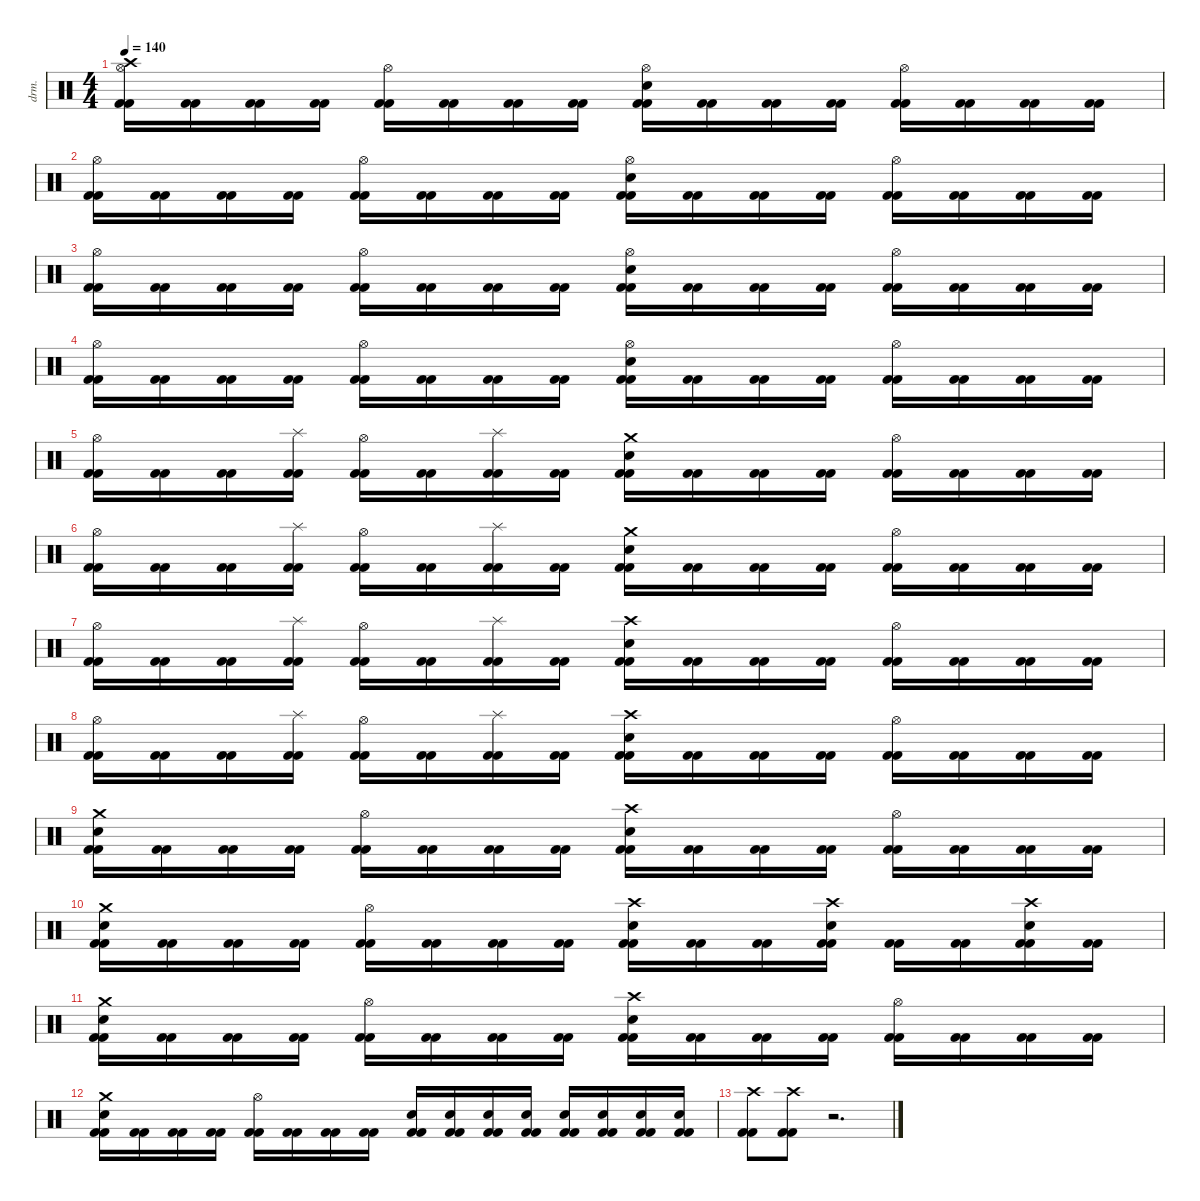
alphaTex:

\defaultSystemsLayout 4
\hideDynamics
\bracketExtendMode nobrackets
\otherSystemsTrackNameOrientation horizontal
\track ("Chris Adler" "drm.") {instrument percussion}
\staff {score}
\articulation defaults
\ts (4 4)
\tempo 140
\clef neutral
\ks c
("Crash high (hit)" "Hi-Hat (open)" "Kick (hit) 2" "Kick (hit) 2").16{dy f} ("Kick (hit) 2" "Kick (hit) 2").16 ("Kick (hit) 2" "Kick (hit) 2").16 ("Kick (hit) 2" "Kick (hit) 2").16 ("Hi-Hat (open)" "Kick (hit) 2" "Kick (hit) 2").16 ("Kick (hit) 2" "Kick (hit) 2").16 ("Kick (hit) 2" "Kick (hit) 2").16 ("Kick (hit) 2" "Kick (hit) 2").16 ("Hi-Hat (open)" "Snare (hit) 2" "Kick (hit) 2" "Kick (hit) 2").16 ("Kick (hit) 2" "Kick (hit) 2").16 ("Kick (hit) 2" "Kick (hit) 2").16 ("Kick (hit) 2" "Kick (hit) 2").16 ("Hi-Hat (open)" "Kick (hit) 2" "Kick (hit) 2").16 ("Kick (hit) 2" "Kick (hit) 2").16 ("Kick (hit) 2" "Kick (hit) 2").16 ("Kick (hit) 2" "Kick (hit) 2").16 |
("Hi-Hat (open)" "Kick (hit) 2" "Kick (hit) 2").16 ("Kick (hit) 2" "Kick (hit) 2").16 ("Kick (hit) 2" "Kick (hit) 2").16 ("Kick (hit) 2" "Kick (hit) 2").16 ("Hi-Hat (open)" "Kick (hit) 2" "Kick (hit) 2").16 ("Kick (hit) 2" "Kick (hit) 2").16 ("Kick (hit) 2" "Kick (hit) 2").16 ("Kick (hit) 2" "Kick (hit) 2").16 ("Hi-Hat (open)" "Snare (hit) 2" "Kick (hit) 2" "Kick (hit) 2").16 ("Kick (hit) 2" "Kick (hit) 2").16 ("Kick (hit) 2" "Kick (hit) 2").16 ("Kick (hit) 2" "Kick (hit) 2").16 ("Hi-Hat (open)" "Kick (hit) 2" "Kick (hit) 2").16 ("Kick (hit) 2" "Kick (hit) 2").16 ("Kick (hit) 2" "Kick (hit) 2").16 ("Kick (hit) 2" "Kick (hit) 2").16 |
("Hi-Hat (open)" "Kick (hit) 2" "Kick (hit) 2").16 ("Kick (hit) 2" "Kick (hit) 2").16 ("Kick (hit) 2" "Kick (hit) 2").16 ("Kick (hit) 2" "Kick (hit) 2").16 ("Hi-Hat (open)" "Kick (hit) 2" "Kick (hit) 2").16 ("Kick (hit) 2" "Kick (hit) 2").16 ("Kick (hit) 2" "Kick (hit) 2").16 ("Kick (hit) 2" "Kick (hit) 2").16 ("Hi-Hat (open)" "Snare (hit) 2" "Kick (hit) 2" "Kick (hit) 2").16 ("Kick (hit) 2" "Kick (hit) 2").16 ("Kick (hit) 2" "Kick (hit) 2").16 ("Kick (hit) 2" "Kick (hit) 2").16 ("Hi-Hat (open)" "Kick (hit) 2" "Kick (hit) 2").16 ("Kick (hit) 2" "Kick (hit) 2").16 ("Kick (hit) 2" "Kick (hit) 2").16 ("Kick (hit) 2" "Kick (hit) 2").16 |
("Hi-Hat (open)" "Kick (hit) 2" "Kick (hit) 2").16 ("Kick (hit) 2" "Kick (hit) 2").16 ("Kick (hit) 2" "Kick (hit) 2").16 ("Kick (hit) 2" "Kick (hit) 2").16 ("Hi-Hat (open)" "Kick (hit) 2" "Kick (hit) 2").16 ("Kick (hit) 2" "Kick (hit) 2").16 ("Kick (hit) 2" "Kick (hit) 2").16 ("Kick (hit) 2" "Kick (hit) 2").16 ("Hi-Hat (open)" "Snare (hit) 2" "Kick (hit) 2" "Kick (hit) 2").16 ("Kick (hit) 2" "Kick (hit) 2").16 ("Kick (hit) 2" "Kick (hit) 2").16 ("Kick (hit) 2" "Kick (hit) 2").16 ("Hi-Hat (open)" "Kick (hit) 2" "Kick (hit) 2").16 ("Kick (hit) 2" "Kick (hit) 2").16 ("Kick (hit) 2" "Kick (hit) 2").16 ("Kick (hit) 2" "Kick (hit) 2").16 |
("Hi-Hat (open)" "Kick (hit) 2" "Kick (hit) 2").16 ("Kick (hit) 2" "Kick (hit) 2").16 ("Kick (hit) 2" "Kick (hit) 2").16 ("Splash (hit)" "Kick (hit) 2" "Kick (hit) 2").16 ("Hi-Hat (open)" "Kick (hit) 2" "Kick (hit) 2").16 ("Kick (hit) 2" "Kick (hit) 2").16 ("Splash (hit)" "Kick (hit) 2" "Kick (hit) 2").16 ("Kick (hit) 2" "Kick (hit) 2").16 ("Crash medium (hit)" "Snare (hit) 2" "Kick (hit) 2" "Kick (hit) 2").16 ("Kick (hit) 2" "Kick (hit) 2").16 ("Kick (hit) 2" "Kick (hit) 2").16 ("Kick (hit) 2" "Kick (hit) 2").16 ("Hi-Hat (open)" "Kick (hit) 2" "Kick (hit) 2").16 ("Kick (hit) 2" "Kick (hit) 2").16 ("Kick (hit) 2" "Kick (hit) 2").16 ("Kick (hit) 2" "Kick (hit) 2").16 |
("Hi-Hat (open)" "Kick (hit) 2" "Kick (hit) 2").16 ("Kick (hit) 2" "Kick (hit) 2").16 ("Kick (hit) 2" "Kick (hit) 2").16 ("Splash (hit)" "Kick (hit) 2" "Kick (hit) 2").16 ("Hi-Hat (open)" "Kick (hit) 2" "Kick (hit) 2").16 ("Kick (hit) 2" "Kick (hit) 2").16 ("Splash (hit)" "Kick (hit) 2" "Kick (hit) 2").16 ("Kick (hit) 2" "Kick (hit) 2").16 ("Crash medium (hit)" "Snare (hit) 2" "Kick (hit) 2" "Kick (hit) 2").16 ("Kick (hit) 2" "Kick (hit) 2").16 ("Kick (hit) 2" "Kick (hit) 2").16 ("Kick (hit) 2" "Kick (hit) 2").16 ("Hi-Hat (open)" "Kick (hit) 2" "Kick (hit) 2").16 ("Kick (hit) 2" "Kick (hit) 2").16 ("Kick (hit) 2" "Kick (hit) 2").16 ("Kick (hit) 2" "Kick (hit) 2").16 |
("Hi-Hat (open)" "Kick (hit) 2" "Kick (hit) 2").16 ("Kick (hit) 2" "Kick (hit) 2").16 ("Kick (hit) 2" "Kick (hit) 2").16 ("Splash (hit)" "Kick (hit) 2" "Kick (hit) 2").16 ("Hi-Hat (open)" "Kick (hit) 2" "Kick (hit) 2").16 ("Kick (hit) 2" "Kick (hit) 2").16 ("Splash (hit)" "Kick (hit) 2" "Kick (hit) 2").16 ("Kick (hit) 2" "Kick (hit) 2").16 ("Crash high (hit)" "Snare (hit) 2" "Kick (hit) 2" "Kick (hit) 2").16 ("Kick (hit) 2" "Kick (hit) 2").16 ("Kick (hit) 2" "Kick (hit) 2").16 ("Kick (hit) 2" "Kick (hit) 2").16 ("Hi-Hat (open)" "Kick (hit) 2" "Kick (hit) 2").16 ("Kick (hit) 2" "Kick (hit) 2").16 ("Kick (hit) 2" "Kick (hit) 2").16 ("Kick (hit) 2" "Kick (hit) 2").16 |
("Hi-Hat (open)" "Kick (hit) 2" "Kick (hit) 2").16 ("Kick (hit) 2" "Kick (hit) 2").16 ("Kick (hit) 2" "Kick (hit) 2").16 ("Splash (hit)" "Kick (hit) 2" "Kick (hit) 2").16 ("Hi-Hat (open)" "Kick (hit) 2" "Kick (hit) 2").16 ("Kick (hit) 2" "Kick (hit) 2").16 ("Splash (hit)" "Kick (hit) 2" "Kick (hit) 2").16 ("Kick (hit) 2" "Kick (hit) 2").16 ("Crash high (hit)" "Snare (hit) 2" "Kick (hit) 2" "Kick (hit) 2").16 ("Kick (hit) 2" "Kick (hit) 2").16 ("Kick (hit) 2" "Kick (hit) 2").16 ("Kick (hit) 2" "Kick (hit) 2").16 ("Hi-Hat (open)" "Kick (hit) 2" "Kick (hit) 2").16 ("Kick (hit) 2" "Kick (hit) 2").16 ("Kick (hit) 2" "Kick (hit) 2").16 ("Kick (hit) 2" "Kick (hit) 2").16 |
("Crash medium (hit)" "Snare (hit) 2" "Kick (hit) 2" "Kick (hit) 2").16 ("Kick (hit) 2" "Kick (hit) 2").16 ("Kick (hit) 2" "Kick (hit) 2").16 ("Kick (hit) 2" "Kick (hit) 2").16 ("Hi-Hat (open)" "Kick (hit) 2" "Kick (hit) 2").16 ("Kick (hit) 2" "Kick (hit) 2").16 ("Kick (hit) 2" "Kick (hit) 2").16 ("Kick (hit) 2" "Kick (hit) 2").16 ("Crash high (hit)" "Snare (hit) 2" "Kick (hit) 2" "Kick (hit) 2").16 ("Kick (hit) 2" "Kick (hit) 2").16 ("Kick (hit) 2" "Kick (hit) 2").16 ("Kick (hit) 2" "Kick (hit) 2").16 ("Hi-Hat (open)" "Kick (hit) 2" "Kick (hit) 2").16 ("Kick (hit) 2" "Kick (hit) 2").16 ("Kick (hit) 2" "Kick (hit) 2").16 ("Kick (hit) 2" "Kick (hit) 2").16 |
("Crash medium (hit)" "Snare (hit) 2" "Kick (hit) 2" "Kick (hit) 2").16 ("Kick (hit) 2" "Kick (hit) 2").16 ("Kick (hit) 2" "Kick (hit) 2").16 ("Kick (hit) 2" "Kick (hit) 2").16 ("Hi-Hat (open)" "Kick (hit) 2" "Kick (hit) 2").16 ("Kick (hit) 2" "Kick (hit) 2").16 ("Kick (hit) 2" "Kick (hit) 2").16 ("Kick (hit) 2" "Kick (hit) 2").16 ("Crash high (hit)" "Snare (hit) 2" "Kick (hit) 2" "Kick (hit) 2").16 ("Kick (hit) 2" "Kick (hit) 2").16 ("Kick (hit) 2" "Kick (hit) 2").16 ("Crash high (hit)" "Snare (hit) 2" "Kick (hit) 2" "Kick (hit) 2").16 ("Kick (hit) 2" "Kick (hit) 2").16 ("Kick (hit) 2" "Kick (hit) 2").16 ("Crash high (hit)" "Snare (hit) 2" "Kick (hit) 2" "Kick (hit) 2").16 ("Kick (hit) 2" "Kick (hit) 2").16 |
("Crash medium (hit)" "Snare (hit) 2" "Kick (hit) 2" "Kick (hit) 2").16 ("Kick (hit) 2" "Kick (hit) 2").16 ("Kick (hit) 2" "Kick (hit) 2").16 ("Kick (hit) 2" "Kick (hit) 2").16 ("Hi-Hat (open)" "Kick (hit) 2" "Kick (hit) 2").16 ("Kick (hit) 2" "Kick (hit) 2").16 ("Kick (hit) 2" "Kick (hit) 2").16 ("Kick (hit) 2" "Kick (hit) 2").16 ("Crash high (hit)" "Snare (hit) 2" "Kick (hit) 2" "Kick (hit) 2").16 ("Kick (hit) 2" "Kick (hit) 2").16 ("Kick (hit) 2" "Kick (hit) 2").16 ("Kick (hit) 2" "Kick (hit) 2").16 ("Hi-Hat (open)" "Kick (hit) 2" "Kick (hit) 2").16 ("Kick (hit) 2" "Kick (hit) 2").16 ("Kick (hit) 2" "Kick (hit) 2").16 ("Kick (hit) 2" "Kick (hit) 2").16 |
("Crash medium (hit)" "Snare (hit) 2" "Kick (hit) 2" "Kick (hit) 2").16 ("Kick (hit) 2" "Kick (hit) 2").16 ("Kick (hit) 2" "Kick (hit) 2").16 ("Kick (hit) 2" "Kick (hit) 2").16 ("Hi-Hat (open)" "Kick (hit) 2" "Kick (hit) 2").16 ("Kick (hit) 2" "Kick (hit) 2").16 ("Kick (hit) 2" "Kick (hit) 2").16 ("Kick (hit) 2" "Kick (hit) 2").16 ("Snare (hit) 2" "Kick (hit) 2" "Kick (hit) 2").16 ("Snare (hit) 2" "Kick (hit) 2" "Kick (hit) 2").16 ("Snare (hit) 2" "Kick (hit) 2" "Kick (hit) 2").16 ("Snare (hit) 2" "Kick (hit) 2" "Kick (hit) 2").16 ("Snare (hit) 2" "Kick (hit) 2" "Kick (hit) 2").16 ("Snare (hit) 2" "Kick (hit) 2" "Kick (hit) 2").16 ("Snare (hit) 2" "Kick (hit) 2" "Kick (hit) 2").16 ("Snare (hit) 2" "Kick (hit) 2" "Kick (hit) 2").16 |
("Crash high (hit)" "Kick (hit) 2" "Kick (hit) 2").8 ("Crash high (hit)" "Kick (hit) 2" "Kick (hit) 2").8 r.2{d}
